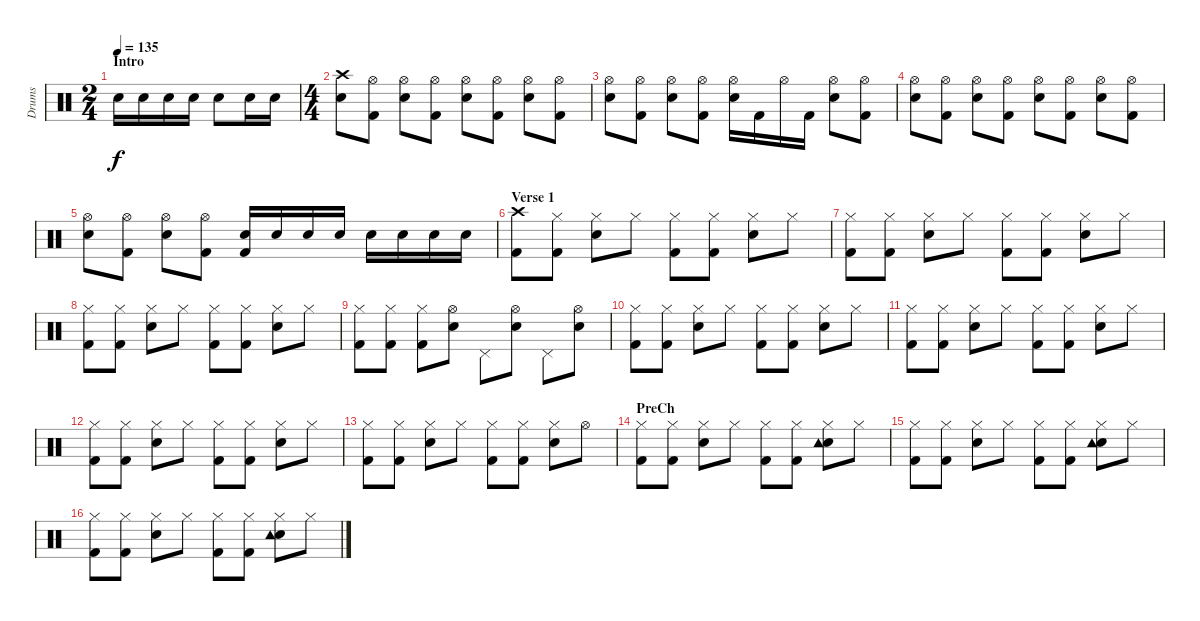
\track ("Drums" "Drums") {instrument percussion}
\staff {score}
\articulation defaults
\ts (2 4)
\section ("" "Intro")
\tempo 135
\clef neutral
\ks c "Snare (hit) 2".16{dy f} "Snare (hit) 2".16 "Snare (hit) 2".16 "Snare (hit) 2".16 "Snare (hit) 2".8 "Snare (hit) 2".16 "Snare (hit) 2".16
|
\ts (4 4)
("Crash high (hit)" "Snare (hit) 2").8 ("Hi-Hat (open)" "Kick (hit) 2").8 ("Hi-Hat (open)" "Snare (hit) 2").8 ("Hi-Hat (open)" "Kick (hit) 2").8 ("Hi-Hat (open)" "Snare (hit) 2").8 ("Hi-Hat (open)" "Kick (hit) 2").8 ("Hi-Hat (open)" "Snare (hit) 2").8 ("Hi-Hat (open)" "Kick (hit) 2").8 |
("Hi-Hat (open)" "Snare (hit) 2").8 ("Hi-Hat (open)" "Kick (hit) 2").8 ("Hi-Hat (open)" "Snare (hit) 2").8 ("Hi-Hat (open)" "Kick (hit) 2").8 ("Hi-Hat (open)" "Snare (hit) 2").16 "Kick (hit) 2".16 "Hi-Hat (open)".16 "Kick (hit) 2".16 ("Hi-Hat (open)" "Snare (hit) 2").8 ("Hi-Hat (open)" "Kick (hit) 2").8 |
("Hi-Hat (open)" "Snare (hit) 2").8 ("Hi-Hat (open)" "Kick (hit) 2").8 ("Hi-Hat (open)" "Snare (hit) 2").8 ("Hi-Hat (open)" "Kick (hit) 2").8 ("Hi-Hat (open)" "Snare (hit) 2").8 ("Hi-Hat (open)" "Kick (hit) 2").8 ("Hi-Hat (open)" "Snare (hit) 2").8 ("Hi-Hat (open)" "Kick (hit) 2").8 |
("Hi-Hat (open)" "Snare (hit) 2").8 ("Hi-Hat (open)" "Kick (hit) 2").8 ("Hi-Hat (open)" "Snare (hit) 2").8 ("Hi-Hat (open)" "Kick (hit) 2").8 ("Snare (hit) 2" "Kick (hit) 2").16 "Snare (hit) 2".16 "Snare (hit) 2".16 "Snare (hit) 2".16 "Snare (hit) 2".16 "Snare (hit) 2".16 "Snare (hit) 2".16 "Snare (hit) 2".16 |
\section ("" "Verse 1")
("Crash high (hit)" "Kick (hit) 2").8 ("Hi-Hat (closed)" "Kick (hit) 2").8 ("Hi-Hat (closed)" "Snare (hit) 2").8 "Hi-Hat (closed)".8 ("Hi-Hat (closed)" "Kick (hit) 2").8 ("Hi-Hat (closed)" "Kick (hit) 2").8 ("Hi-Hat (closed)" "Snare (hit) 2").8 "Hi-Hat (closed)".8 |
("Hi-Hat (closed)" "Kick (hit) 2").8 ("Hi-Hat (closed)" "Kick (hit) 2").8 ("Hi-Hat (closed)" "Snare (hit) 2").8 "Hi-Hat (closed)".8 ("Hi-Hat (closed)" "Kick (hit) 2").8 ("Hi-Hat (closed)" "Kick (hit) 2").8 ("Hi-Hat (closed)" "Snare (hit) 2").8 "Hi-Hat (closed)".8 |
("Hi-Hat (closed)" "Kick (hit) 2").8 ("Hi-Hat (closed)" "Kick (hit) 2").8 ("Hi-Hat (closed)" "Snare (hit) 2").8 "Hi-Hat (closed)".8 ("Hi-Hat (closed)" "Kick (hit) 2").8 ("Hi-Hat (closed)" "Kick (hit) 2").8 ("Hi-Hat (closed)" "Snare (hit) 2").8 "Hi-Hat (closed)".8 |
("Hi-Hat (closed)" "Kick (hit) 2").8 ("Hi-Hat (closed)" "Kick (hit) 2").8 ("Hi-Hat (closed)" "Kick (hit) 2").8 ("Hi-Hat (open)" "Snare (hit) 2").8 "Pedal Hi-Hat (hit)".8 ("Hi-Hat (open)" "Snare (hit) 2").8 "Pedal Hi-Hat (hit)".8 ("Hi-Hat (open)" "Snare (hit) 2").8 |
("Hi-Hat (closed)" "Kick (hit) 2").8 ("Hi-Hat (closed)" "Kick (hit) 2").8 ("Hi-Hat (closed)" "Snare (hit) 2").8 "Hi-Hat (closed)".8 ("Hi-Hat (closed)" "Kick (hit) 2").8 ("Hi-Hat (closed)" "Kick (hit) 2").8 ("Hi-Hat (closed)" "Snare (hit) 2").8 "Hi-Hat (closed)".8 |
("Hi-Hat (closed)" "Kick (hit) 2").8 ("Hi-Hat (closed)" "Kick (hit) 2").8 ("Hi-Hat (closed)" "Snare (hit) 2").8 "Hi-Hat (closed)".8 ("Hi-Hat (closed)" "Kick (hit) 2").8 ("Hi-Hat (closed)" "Kick (hit) 2").8 ("Hi-Hat (closed)" "Snare (hit) 2").8 "Hi-Hat (closed)".8 |
("Hi-Hat (closed)" "Kick (hit) 2").8 ("Hi-Hat (closed)" "Kick (hit) 2").8 ("Hi-Hat (closed)" "Snare (hit) 2").8 "Hi-Hat (closed)".8 ("Hi-Hat (closed)" "Kick (hit) 2").8 ("Hi-Hat (closed)" "Kick (hit) 2").8 ("Hi-Hat (closed)" "Snare (hit) 2").8 "Hi-Hat (closed)".8 |
("Hi-Hat (closed)" "Kick (hit) 2").8 ("Hi-Hat (closed)" "Kick (hit) 2").8 ("Hi-Hat (closed)" "Snare (hit) 2").8 "Hi-Hat (closed)".8 ("Hi-Hat (closed)" "Kick (hit) 2").8 ("Hi-Hat (closed)" "Kick (hit) 2").8 ("Hi-Hat (closed)" "Snare (hit) 2").8 "Hi-Hat (open)".8 |
\section ("" "PreCh")
("Hi-Hat (closed)" "Kick (hit) 2").8 ("Hi-Hat (closed)" "Kick (hit) 2").8 ("Hi-Hat (closed)" "Snare (hit) 2").8 "Hi-Hat (closed)".8 ("Hi-Hat (closed)" "Kick (hit) 2").8 ("Hi-Hat (closed)" "Kick (hit) 2").8 ("Hi-Hat (closed)" "Snare (hit) 2" "Tambourine (hit)").8 "Hi-Hat (closed)".8 |
("Hi-Hat (closed)" "Kick (hit) 2").8 ("Hi-Hat (closed)" "Kick (hit) 2").8 ("Hi-Hat (closed)" "Snare (hit) 2").8 "Hi-Hat (closed)".8 ("Hi-Hat (closed)" "Kick (hit) 2").8 ("Hi-Hat (closed)" "Kick (hit) 2").8 ("Hi-Hat (closed)" "Snare (hit) 2" "Tambourine (hit)").8 "Hi-Hat (closed)".8 |
("Hi-Hat (closed)" "Kick (hit) 2").8 ("Hi-Hat (closed)" "Kick (hit) 2").8 ("Hi-Hat (closed)" "Snare (hit) 2").8 "Hi-Hat (closed)".8 ("Hi-Hat (closed)" "Kick (hit) 2").8 ("Hi-Hat (closed)" "Kick (hit) 2").8 ("Hi-Hat (closed)" "Snare (hit) 2" "Tambourine (hit)").8 "Hi-Hat (closed)".8
